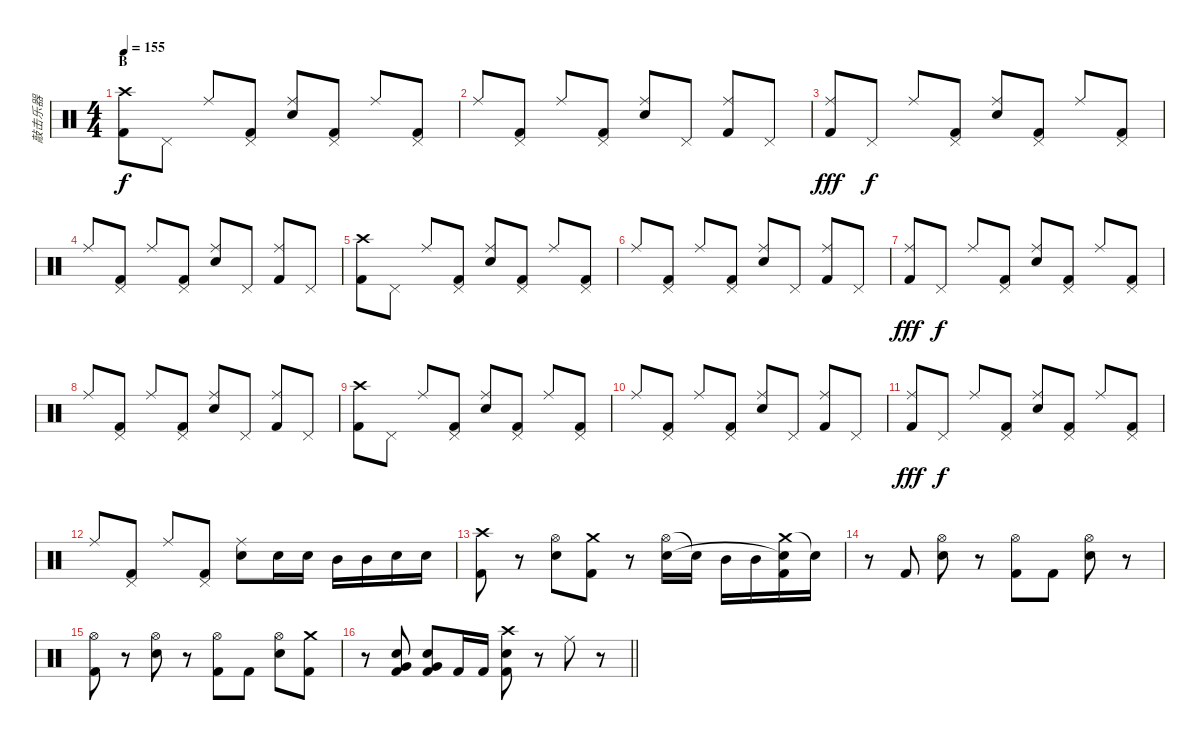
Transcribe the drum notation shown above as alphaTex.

\track ("敲击乐器" "敲击乐器") {instrument percussion}
\staff {score}
\articulation defaults
\ts (4 4)
\section ("" "B")
\tempo 155
\clef neutral
\ks c
("Crash high (hit)" "Kick (hit) 2").8{dy f} "Pedal Hi-Hat (hit)".8 "Ride (middle)".8 ("Pedal Hi-Hat (hit)" "Kick (hit) 2").8 ("Ride (middle)" "Snare (hit) 2").8 ("Pedal Hi-Hat (hit)" "Kick (hit) 2").8 "Ride (middle)".8 ("Pedal Hi-Hat (hit)" "Kick (hit) 2").8 |
"Ride (middle)".8 ("Pedal Hi-Hat (hit)" "Kick (hit) 2").8 "Ride (middle)".8 ("Pedal Hi-Hat (hit)" "Kick (hit) 2").8 ("Ride (middle)" "Snare (hit) 2").8 "Pedal Hi-Hat (hit)".8 ("Ride (middle)" "Kick (hit) 2").8 "Pedal Hi-Hat (hit)".8 |
("Ride (middle)" "Kick (hit) 2").8{dy fff} "Pedal Hi-Hat (hit)".8{dy f} "Ride (middle)".8 ("Pedal Hi-Hat (hit)" "Kick (hit) 2").8 ("Ride (middle)" "Snare (hit) 2").8 ("Pedal Hi-Hat (hit)" "Kick (hit) 2").8 "Ride (middle)".8 ("Pedal Hi-Hat (hit)" "Kick (hit) 2").8 |
"Ride (middle)".8 ("Pedal Hi-Hat (hit)" "Kick (hit) 2").8 "Ride (middle)".8 ("Pedal Hi-Hat (hit)" "Kick (hit) 2").8 ("Ride (middle)" "Snare (hit) 2").8 "Pedal Hi-Hat (hit)".8 ("Ride (middle)" "Kick (hit) 2").8 "Pedal Hi-Hat (hit)".8 |
("Crash high (hit)" "Kick (hit) 2").8 "Pedal Hi-Hat (hit)".8 "Ride (middle)".8 ("Pedal Hi-Hat (hit)" "Kick (hit) 2").8 ("Ride (middle)" "Snare (hit) 2").8 ("Pedal Hi-Hat (hit)" "Kick (hit) 2").8 "Ride (middle)".8 ("Pedal Hi-Hat (hit)" "Kick (hit) 2").8 |
"Ride (middle)".8 ("Pedal Hi-Hat (hit)" "Kick (hit) 2").8 "Ride (middle)".8 ("Pedal Hi-Hat (hit)" "Kick (hit) 2").8 ("Ride (middle)" "Snare (hit) 2").8 "Pedal Hi-Hat (hit)".8 ("Ride (middle)" "Kick (hit) 2").8 "Pedal Hi-Hat (hit)".8 |
("Ride (middle)" "Kick (hit) 2").8{dy fff} "Pedal Hi-Hat (hit)".8{dy f} "Ride (middle)".8 ("Pedal Hi-Hat (hit)" "Kick (hit) 2").8 ("Ride (middle)" "Snare (hit) 2").8 ("Pedal Hi-Hat (hit)" "Kick (hit) 2").8 "Ride (middle)".8 ("Pedal Hi-Hat (hit)" "Kick (hit) 2").8 |
"Ride (middle)".8 ("Pedal Hi-Hat (hit)" "Kick (hit) 2").8 "Ride (middle)".8 ("Pedal Hi-Hat (hit)" "Kick (hit) 2").8 ("Ride (middle)" "Snare (hit) 2").8 "Pedal Hi-Hat (hit)".8 ("Ride (middle)" "Kick (hit) 2").8 "Pedal Hi-Hat (hit)".8 |
("Crash high (hit)" "Kick (hit) 2").8 "Pedal Hi-Hat (hit)".8 "Ride (middle)".8 ("Pedal Hi-Hat (hit)" "Kick (hit) 2").8 ("Ride (middle)" "Snare (hit) 2").8 ("Pedal Hi-Hat (hit)" "Kick (hit) 2").8 "Ride (middle)".8 ("Pedal Hi-Hat (hit)" "Kick (hit) 2").8 |
"Ride (middle)".8 ("Pedal Hi-Hat (hit)" "Kick (hit) 2").8 "Ride (middle)".8 ("Pedal Hi-Hat (hit)" "Kick (hit) 2").8 ("Ride (middle)" "Snare (hit) 2").8 "Pedal Hi-Hat (hit)".8 ("Ride (middle)" "Kick (hit) 2").8 "Pedal Hi-Hat (hit)".8 |
("Ride (middle)" "Kick (hit) 2").8{dy fff} "Pedal Hi-Hat (hit)".8{dy f} "Ride (middle)".8 ("Pedal Hi-Hat (hit)" "Kick (hit) 2").8 ("Ride (middle)" "Snare (hit) 2").8 ("Pedal Hi-Hat (hit)" "Kick (hit) 2").8 "Ride (middle)".8 ("Pedal Hi-Hat (hit)" "Kick (hit) 2").8 |
"Ride (middle)".8 ("Pedal Hi-Hat (hit)" "Kick (hit) 2").8 "Ride (middle)".8 ("Pedal Hi-Hat (hit)" "Kick (hit) 2").8 ("Ride (middle)" "Snare (hit) 2").8 "Snare (hit) 2".16 "Snare (hit) 2".16 "Mid Tom (hit)".16 "Mid Tom (hit)".16 "Snare (hit) 2".16 "Snare (hit) 2".16 |
("Crash high (hit)" "Kick (hit) 2").8 r.8 ("Hi-Hat (open)" "Snare (hit) 2").8 ("Crash medium (hit)" "Kick (hit) 2").8 r.8 ("Hi-Hat (open)" "Snare (hit) 2").16 "Snare (hit) 2"{t}.16 "Mid Tom (hit)".16 "Mid Tom (hit)".16 ("Crash medium (hit)" "Snare (hit) 2"{t} "Kick (hit) 2").16 "Snare (hit) 2"{t}.16 |
r.8 "Kick (hit) 2".8 ("Hi-Hat (open)" "Snare (hit) 2").8 r.8 ("Hi-Hat (open)" "Kick (hit) 2").8 "Kick (hit) 2".8 ("Hi-Hat (open)" "Snare (hit) 2").8 r.8 |
("Hi-Hat (open)" "Kick (hit) 2").8 r.8 ("Hi-Hat (open)" "Snare (hit) 2").8 r.8 ("Hi-Hat (open)" "Kick (hit) 2").8 "Kick (hit) 2".8 ("Hi-Hat (open)" "Snare (hit) 2").8 ("Crash medium (hit)" "Kick (hit) 2").8 |
\barLineRight lightlight
r.8 ("Snare (hit) 2" "Very Low Tom (hit)" "Kick (hit) 2").8 ("Snare (hit) 2" "Very Low Tom (hit)" "Kick (hit) 2").8 "Kick (hit) 2".16 "Kick (hit) 2".16 ("Crash high (hit)" "Snare (hit) 2" "Kick (hit) 2").8 r.8 "Ride (middle)".8 r.8
